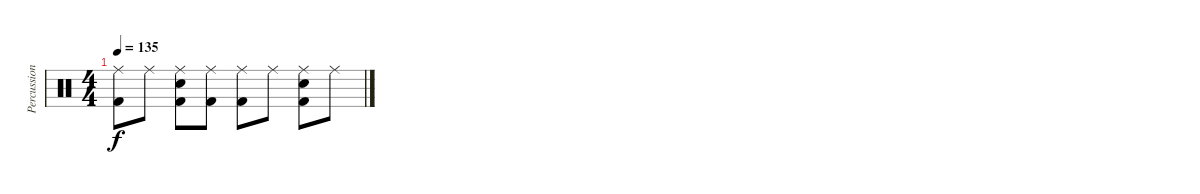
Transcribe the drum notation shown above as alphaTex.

\track ("Percussion" "Percussion") {instrument percussion}
\staff {score}
\articulation defaults
\ts (4 4)
\tempo 135
\clef neutral
\ks c
("Ride (middle)" "Kick (hit) 2").8{dy f} "Ride (middle)".8 ("Ride (middle)" "Electric Snare (hit)" "Kick (hit) 2").8 ("Ride (middle)" "Kick (hit) 2").8 ("Ride (middle)" "Kick (hit) 2").8 "Ride (middle)".8 ("Ride (middle)" "Electric Snare (hit)" "Kick (hit) 2").8 "Ride (middle)".8
